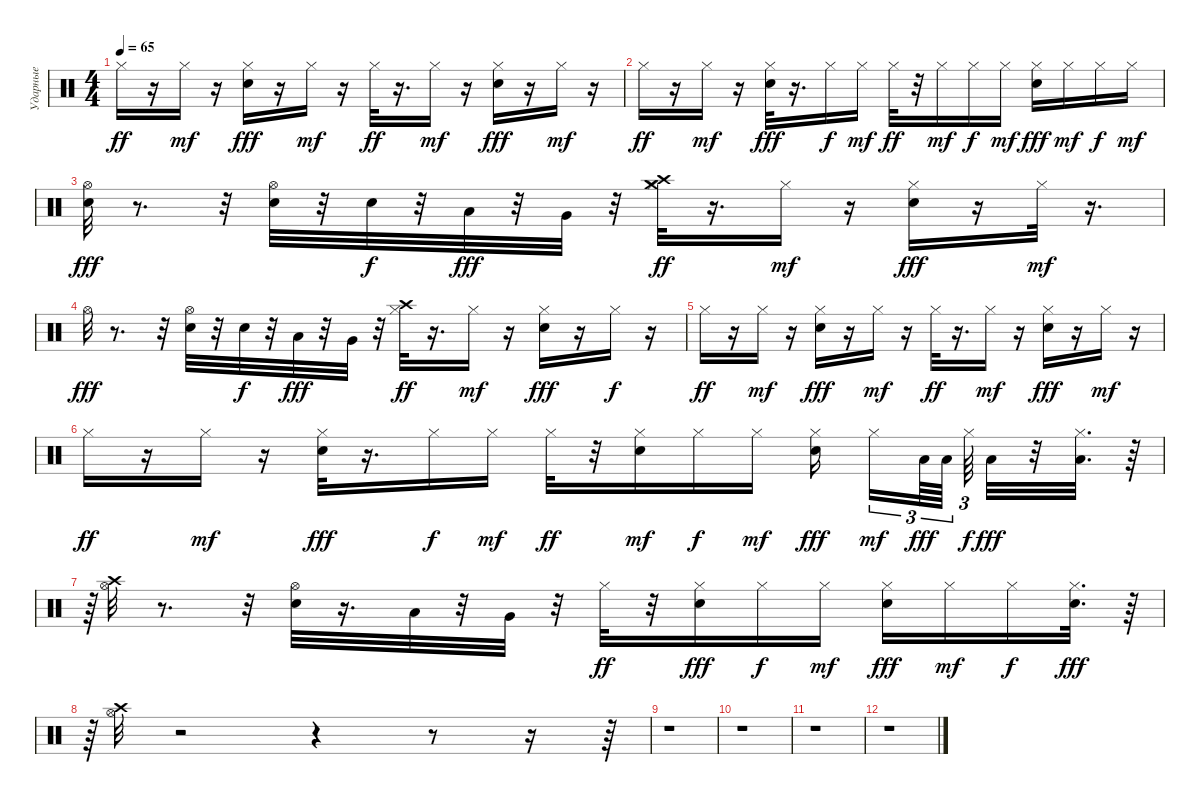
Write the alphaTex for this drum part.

\track ("Ударные" "Ударные") {instrument percussion}
\staff {score}
\articulation defaults
\ts (4 4)
\tempo 65
\clef neutral
\ks c "Hi-Hat (closed)".16{dy ff}
r.16 "Hi-Hat (closed)".16{dy mf} r.16 ("Hi-Hat (closed)" "Snare (hit) 2").16{dy fff} r.16 "Hi-Hat (closed)".16{dy mf} r.16 "Hi-Hat (closed)".32{dy ff} r.16{d} "Hi-Hat (closed)".16{dy mf} r.16 ("Hi-Hat (closed)" "Snare (hit) 2").16{dy fff} r.16 "Hi-Hat (closed)".16{dy mf} r.16 |
"Hi-Hat (closed)".16{dy ff} r.16 "Hi-Hat (closed)".16{dy mf} r.16 ("Hi-Hat (closed)" "Snare (hit) 2").32{dy fff} r.16{d} "Hi-Hat (closed)".16{dy f} "Hi-Hat (closed)".16{dy mf} "Hi-Hat (closed)".32{dy ff} r.32 "Hi-Hat (closed)".16{dy mf} "Hi-Hat (closed)".16{dy f} "Hi-Hat (closed)".16{dy mf} ("Snare (hit) 2" "Hi-Hat (closed)").16{dy fff} "Hi-Hat (closed)".16{dy mf} "Hi-Hat (closed)".16{dy f} "Hi-Hat (closed)".16{dy mf} |
("Snare (hit) 2" "Hi-Hat (open)").32{dy fff} r.8{d} r.32 ("Hi-Hat (open)" "Snare (hit) 2").32 r.32 "Snare (hit) 2".32{dy f} r.32 "Low Tom (hit)".32{dy fff} r.32 "Very Low Tom (hit)".32 r.32 ("Crash high (hit)" "Hi-Hat (closed)" "Crash medium (hit)").32{dy ff} r.16{d} "Hi-Hat (closed)".16{dy mf} r.16 ("Snare (hit) 2" "Hi-Hat (closed)").16{dy fff} r.16 "Hi-Hat (closed)".32{dy mf} r.16{d} |
"Hi-Hat (open)".32{dy fff} r.8{d} r.32 ("Snare (hit) 2" "Hi-Hat (open)").32 r.32 "Snare (hit) 2".32{dy f} r.32 "Low Tom (hit)".32{dy fff} r.32 "Very Low Tom (hit)".32 r.32 ("Hi-Hat (closed)" "Crash high (hit)").32{dy ff} r.16{d} "Hi-Hat (closed)".16{dy mf} r.16 ("Hi-Hat (closed)" "Snare (hit) 2").16{dy fff} r.16 "Hi-Hat (closed)".16{dy f} r.16 |
"Hi-Hat (closed)".16{dy ff} r.16 "Hi-Hat (closed)".16{dy mf} r.16 ("Hi-Hat (closed)" "Snare (hit) 2").16{dy fff} r.16 "Hi-Hat (closed)".16{dy mf} r.16 "Hi-Hat (closed)".32{dy ff} r.16{d} "Hi-Hat (closed)".16{dy mf} r.16 ("Snare (hit) 2" "Hi-Hat (closed)").16{dy fff} r.16 "Hi-Hat (closed)".16{dy mf} r.16 |
"Hi-Hat (closed)".16{dy ff} r.16 "Hi-Hat (closed)".16{dy mf} r.16 ("Hi-Hat (closed)" "Snare (hit) 2").32{dy fff} r.16{d} "Hi-Hat (closed)".16{dy f} "Hi-Hat (closed)".16{dy mf} "Hi-Hat (closed)".32{dy ff} r.32 ("Snare (hit) 2" "Hi-Hat (closed)").16{dy mf} "Hi-Hat (closed)".16{dy f} "Hi-Hat (closed)".16{dy mf} ("Hi-Hat (closed)" "Snare (hit) 2").16{dy fff beam splitsecondary} "Hi-Hat (closed)".16{tu (3 2) dy mf} "Low Floor Tom (hit)".64{tu (3 2) dy fff} "Low Floor Tom (hit)".64{tu (3 2) beam splitsecondary} "Hi-Hat (closed)".64{tu (3 2) dy f} "Low Floor Tom (hit)".32{dy fff} r.32 ("Hi-Hat (closed)" "Low Floor Tom (hit)").32{d} r.64 |
r.64{tu (3 2)} ("Hi-Hat (open)" "Crash high (hit)").32 r.8{d} r.32 ("Snare (hit) 2" "Hi-Hat (open)").32 r.16{d} "Low Tom (hit)".32 r.32 "Very Low Tom (hit)".32 r.32 "Hi-Hat (closed)".32{dy ff} r.32 ("Hi-Hat (closed)" "Snare (hit) 2").16{dy fff} "Hi-Hat (closed)".16{dy f} "Hi-Hat (closed)".16{dy mf} ("Snare (hit) 2" "Hi-Hat (closed)").16{dy fff} "Hi-Hat (closed)".16{dy mf} "Hi-Hat (closed)".16{dy f} ("Hi-Hat (closed)" "Snare (hit) 2").32{d dy fff} r.64 |
r.64{tu (3 2)} ("Crash high (hit)" "Hi-Hat (open)").32 r.2 r.4 r.8 r.16 r.64 |
r.1 |
r.1 |
r.1 |
r.1
